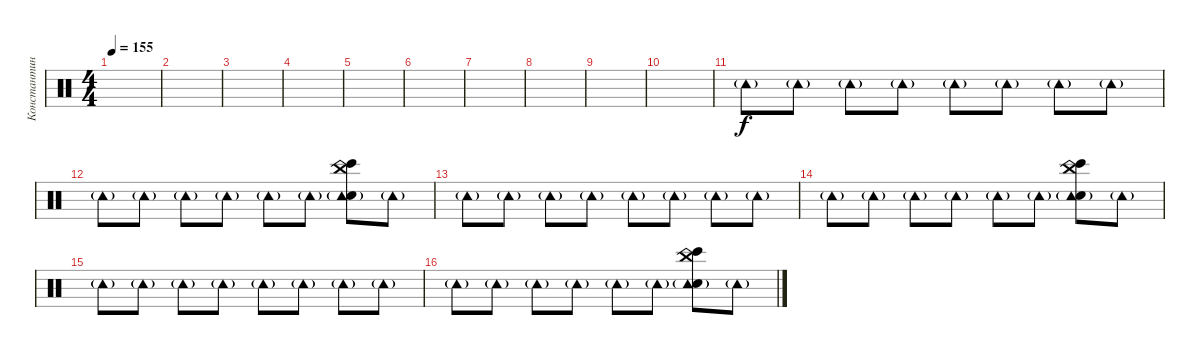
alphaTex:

\track ("Константин Бекрев" "Константин") {instrument percussion}
\staff {score}
\articulation defaults
\ts (4 4)
\tempo 155
\clef neutral
\ks c
|
|
|
|
|
|
|
|
|
|
"Tambourine (hit)"{g}.8 "Tambourine (hit)"{g}.8 "Tambourine (hit)"{g}.8 "Tambourine (hit)"{g}.8 "Tambourine (hit)"{g}.8 "Tambourine (hit)"{g}.8 "Tambourine (hit)"{g}.8 "Tambourine (hit)"{g}.8 |
"Tambourine (hit)"{g}.8 "Tambourine (hit)"{g}.8 "Tambourine (hit)"{g}.8 "Tambourine (hit)"{g}.8 "Tambourine (hit)"{g}.8 "Tambourine (hit)"{g}.8 ("China (hit)" "Hand Clap (hit)" "Bongo High (hit)" "Tambourine (hit)"{g}).8 "Tambourine (hit)"{g}.8 |
"Tambourine (hit)"{g}.8 "Tambourine (hit)"{g}.8 "Tambourine (hit)"{g}.8 "Tambourine (hit)"{g}.8 "Tambourine (hit)"{g}.8 "Tambourine (hit)"{g}.8 "Tambourine (hit)"{g}.8 "Tambourine (hit)"{g}.8 |
"Tambourine (hit)"{g}.8 "Tambourine (hit)"{g}.8 "Tambourine (hit)"{g}.8 "Tambourine (hit)"{g}.8 "Tambourine (hit)"{g}.8 "Tambourine (hit)"{g}.8 ("China (hit)" "Hand Clap (hit)" "Bongo High (hit)" "Tambourine (hit)"{g}).8 "Tambourine (hit)"{g}.8 |
"Tambourine (hit)"{g}.8 "Tambourine (hit)"{g}.8 "Tambourine (hit)"{g}.8 "Tambourine (hit)"{g}.8 "Tambourine (hit)"{g}.8 "Tambourine (hit)"{g}.8 "Tambourine (hit)"{g}.8 "Tambourine (hit)"{g}.8 |
"Tambourine (hit)"{g}.8 "Tambourine (hit)"{g}.8 "Tambourine (hit)"{g}.8 "Tambourine (hit)"{g}.8 "Tambourine (hit)"{g}.8 "Tambourine (hit)"{g}.8 ("China (hit)" "Hand Clap (hit)" "Bongo High (hit)" "Tambourine (hit)"{g}).8 "Tambourine (hit)"{g}.8
